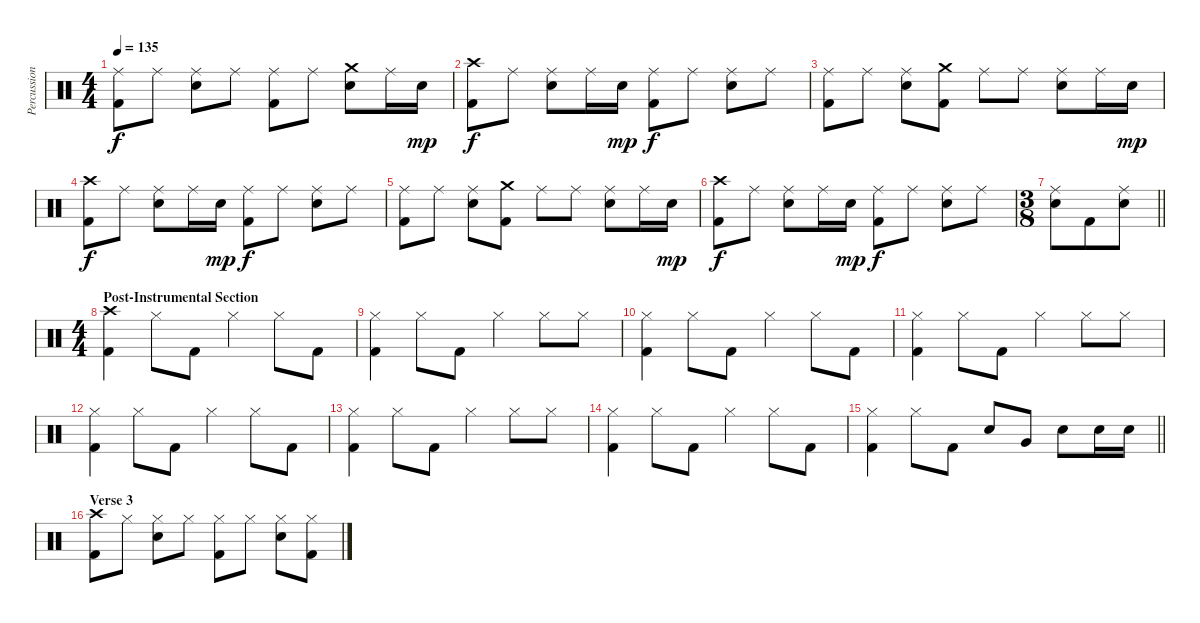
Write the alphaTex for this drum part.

\track ("Percussion" "Percussion") {instrument percussion}
\staff {score}
\articulation defaults
\ts (4 4)
\tempo 135
\clef neutral
\ks c
("Ride (middle)" "Kick (hit) 2").8{dy f} "Ride (middle)".8 ("Ride (middle)" "Snare (hit) 2").8 "Ride (middle)".8 ("Ride (middle)" "Kick (hit) 2").8 "Ride (middle)".8 ("Crash medium (hit)" "Snare (hit) 2").8 "Ride (middle)".16 "Snare (hit) 2".16{dy mp} |
("Crash high (hit)" "Kick (hit) 2").8{dy f} "Ride (middle)".8 ("Ride (middle)" "Snare (hit) 2").8 "Ride (middle)".16 "Snare (hit) 2".16{dy mp} ("Ride (middle)" "Kick (hit) 2").8{dy f} "Ride (middle)".8 ("Ride (middle)" "Snare (hit) 2").8 "Ride (middle)".8 |
("Ride (middle)" "Kick (hit) 2").8 "Ride (middle)".8 ("Ride (middle)" "Snare (hit) 2").8 ("Crash medium (hit)" "Kick (hit) 2").8 "Ride (middle)".8 "Ride (middle)".8 ("Ride (middle)" "Snare (hit) 2").8 "Ride (middle)".16 "Snare (hit) 2".16{dy mp} |
("Crash high (hit)" "Kick (hit) 2").8{dy f} "Ride (middle)".8 ("Ride (middle)" "Snare (hit) 2").8 "Ride (middle)".16 "Snare (hit) 2".16{dy mp} ("Ride (middle)" "Kick (hit) 2").8{dy f} "Ride (middle)".8 ("Ride (middle)" "Snare (hit) 2").8 "Ride (middle)".8 |
("Ride (middle)" "Kick (hit) 2").8 "Ride (middle)".8 ("Ride (middle)" "Snare (hit) 2").8 ("Crash medium (hit)" "Kick (hit) 2").8 "Ride (middle)".8 "Ride (middle)".8 ("Ride (middle)" "Snare (hit) 2").8 "Ride (middle)".16 "Snare (hit) 2".16{dy mp} |
("Crash high (hit)" "Kick (hit) 2").8{dy f} "Ride (middle)".8 ("Ride (middle)" "Snare (hit) 2").8 "Ride (middle)".16 "Snare (hit) 2".16{dy mp} ("Ride (middle)" "Kick (hit) 2").8{dy f} "Ride (middle)".8 ("Ride (middle)" "Snare (hit) 2").8 "Ride (middle)".8 |
\ts (3 8)
\barLineRight lightlight
("Ride (middle)" "Snare (hit) 2").8 "Kick (hit) 2".8 ("Ride (middle)" "Snare (hit) 2").8 |
\ts (4 4)
\section ("" "Post-Instrumental Section")
("Crash high (hit)" "Kick (hit) 2").4 "Hi-Hat (closed)".8 "Kick (hit) 2".8 "Hi-Hat (closed)".4 "Hi-Hat (closed)".8 "Kick (hit) 2".8 |
("Hi-Hat (closed)" "Kick (hit) 2").4 "Hi-Hat (closed)".8 "Kick (hit) 2".8 "Hi-Hat (closed)".4 "Hi-Hat (closed)".8 "Hi-Hat (closed)".8 |
("Hi-Hat (closed)" "Kick (hit) 2").4 "Hi-Hat (closed)".8 "Kick (hit) 2".8 "Hi-Hat (closed)".4 "Hi-Hat (closed)".8 "Kick (hit) 2".8 |
("Hi-Hat (closed)" "Kick (hit) 2").4 "Hi-Hat (closed)".8 "Kick (hit) 2".8 "Hi-Hat (closed)".4 "Hi-Hat (closed)".8 "Hi-Hat (closed)".8 |
("Hi-Hat (closed)" "Kick (hit) 2").4 "Hi-Hat (closed)".8 "Kick (hit) 2".8 "Hi-Hat (closed)".4 "Hi-Hat (closed)".8 "Kick (hit) 2".8 |
("Hi-Hat (closed)" "Kick (hit) 2").4 "Hi-Hat (closed)".8 "Kick (hit) 2".8 "Hi-Hat (closed)".4 "Hi-Hat (closed)".8 "Hi-Hat (closed)".8 |
("Hi-Hat (closed)" "Kick (hit) 2").4 "Hi-Hat (closed)".8 "Kick (hit) 2".8 "Hi-Hat (closed)".4 "Hi-Hat (closed)".8 "Kick (hit) 2".8 |
\barLineRight lightlight
("Hi-Hat (closed)" "Kick (hit) 2").4 "Hi-Hat (closed)".8 "Kick (hit) 2".8 "Snare (hit) 2".8 "Very Low Tom (hit)".8 "Snare (hit) 2".8 "Snare (hit) 2".16 "Snare (hit) 2".16 |
\section ("" "Verse 3")
("Crash high (hit)" "Kick (hit) 2").8 "Hi-Hat (closed)".8 ("Hi-Hat (closed)" "Snare (hit) 2").8 "Hi-Hat (closed)".8 ("Hi-Hat (closed)" "Kick (hit) 2").8 "Hi-Hat (closed)".8 ("Hi-Hat (closed)" "Snare (hit) 2").8 ("Hi-Hat (closed)" "Kick (hit) 2").8
